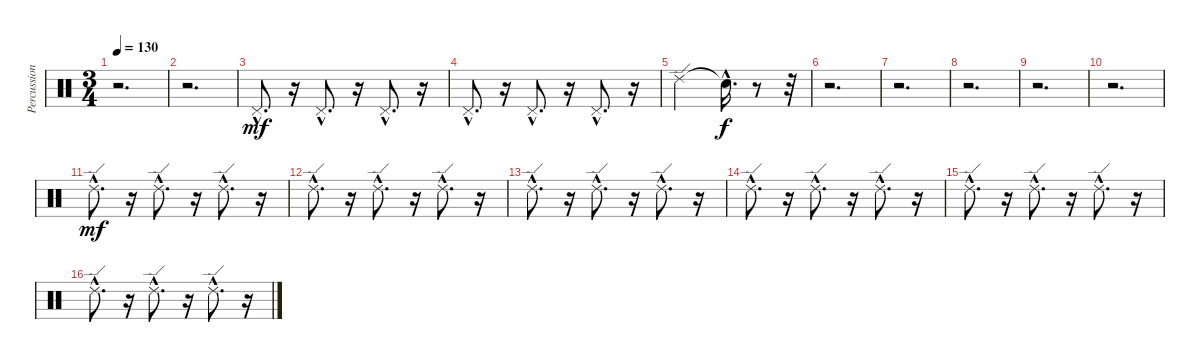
\track ("Percussion (Channel 10)" "Percussion") {instrument percussion}
\staff {score}
\articulation defaults
\ts (3 4)
\tempo 130
\clef neutral
\ks c
r.2{d dy mf} |
r.2{d} |
"Pedal Hi-Hat (hit)"{hac}.8{d} r.16 "Pedal Hi-Hat (hit)"{hac}.8{d} r.16 "Pedal Hi-Hat (hit)"{hac}.8{d} r.16 |
"Pedal Hi-Hat (hit)"{hac}.8{d} r.16 "Pedal Hi-Hat (hit)"{hac}.8{d} r.16 "Pedal Hi-Hat (hit)"{hac}.8{d} r.16 |
"Ride (edge) 2".2 "Snare (hit)"{hac t}.16{d dy f} r.8 r.32 |
r.2{d} |
r.2{d} |
r.2{d} |
r.2{d} |
r.2{d} |
"Ride (edge) 2"{hac}.8{d dy mf} r.16 "Ride (edge) 2"{hac}.8{d} r.16 "Ride (edge) 2"{hac}.8{d} r.16 |
"Ride (edge) 2"{hac}.8{d} r.16 "Ride (edge) 2"{hac}.8{d} r.16 "Ride (edge) 2"{hac}.8{d} r.16 |
"Ride (edge) 2"{hac}.8{d} r.16 "Ride (edge) 2"{hac}.8{d} r.16 "Ride (edge) 2"{hac}.8{d} r.16 |
"Ride (edge) 2"{hac}.8{d} r.16 "Ride (edge) 2"{hac}.8{d} r.16 "Ride (edge) 2"{hac}.8{d} r.16 |
"Ride (edge) 2"{hac}.8{d} r.16 "Ride (edge) 2"{hac}.8{d} r.16 "Ride (edge) 2"{hac}.8{d} r.16 |
"Ride (edge) 2"{hac}.8{d} r.16 "Ride (edge) 2"{hac}.8{d} r.16 "Ride (edge) 2"{hac}.8{d} r.16
